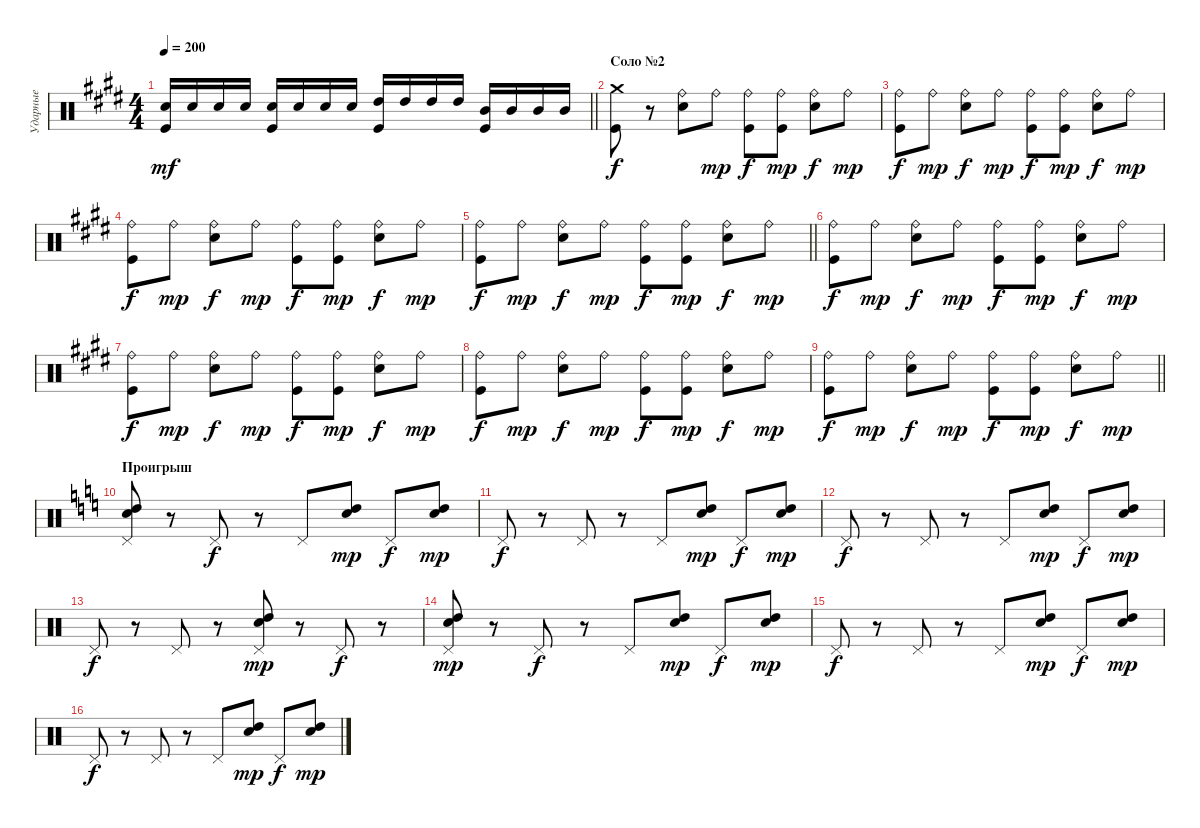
\track ("Ударные" "Ударные") {instrument percussion}
\staff {score}
\articulation defaults
\ts (4 4)
\tempo 200
\clef neutral
\barLineRight lightlight
\ks c#minor
("Electric Snare (hit)" "Kick (hit)").16{dy mf} "Electric Snare (hit)".16 "Electric Snare (hit)".16 "Electric Snare (hit)".16 ("Electric Snare (hit)" "Kick (hit)").16 "Electric Snare (hit)".16 "Electric Snare (hit)".16 "Electric Snare (hit)".16 ("High Tom (hit)" "Kick (hit)").16 "High Tom (hit)".16 "High Tom (hit)".16 "High Tom (hit)".16 ("Mid Tom (hit)" "Kick (hit)").16 "Mid Tom (hit)".16 "Mid Tom (hit)".16 "Mid Tom (hit)".16 |
\section ("" "Соло №2")
("Crash medium (hit)" "Kick (hit)").8{dy f} r.8 ("Ride (bell)" "Electric Snare (hit)").8 "Ride (bell)".8{dy mp} ("Ride (bell)" "Kick (hit)").8{dy f} ("Ride (bell)" "Kick (hit)").8{dy mp} ("Ride (bell)" "Electric Snare (hit)").8{dy f} "Ride (bell)".8{dy mp} |
("Ride (bell)" "Kick (hit)").8{dy f} "Ride (bell)".8{dy mp} ("Ride (bell)" "Electric Snare (hit)").8{dy f} "Ride (bell)".8{dy mp} ("Ride (bell)" "Kick (hit)").8{dy f} ("Ride (bell)" "Kick (hit)").8{dy mp} ("Ride (bell)" "Electric Snare (hit)").8{dy f} "Ride (bell)".8{dy mp} |
("Ride (bell)" "Kick (hit)").8{dy f} "Ride (bell)".8{dy mp} ("Ride (bell)" "Electric Snare (hit)").8{dy f} "Ride (bell)".8{dy mp} ("Ride (bell)" "Kick (hit)").8{dy f} ("Ride (bell)" "Kick (hit)").8{dy mp} ("Ride (bell)" "Electric Snare (hit)").8{dy f} "Ride (bell)".8{dy mp} |
\barLineRight lightlight
("Ride (bell)" "Kick (hit)").8{dy f} "Ride (bell)".8{dy mp} ("Ride (bell)" "Electric Snare (hit)").8{dy f} "Ride (bell)".8{dy mp} ("Ride (bell)" "Kick (hit)").8{dy f} ("Ride (bell)" "Kick (hit)").8{dy mp} ("Ride (bell)" "Electric Snare (hit)").8{dy f} "Ride (bell)".8{dy mp} |
("Ride (bell)" "Kick (hit)").8{dy f} "Ride (bell)".8{dy mp} ("Ride (bell)" "Electric Snare (hit)").8{dy f} "Ride (bell)".8{dy mp} ("Ride (bell)" "Kick (hit)").8{dy f} ("Ride (bell)" "Kick (hit)").8{dy mp} ("Ride (bell)" "Electric Snare (hit)").8{dy f} "Ride (bell)".8{dy mp} |
("Ride (bell)" "Kick (hit)").8{dy f} "Ride (bell)".8{dy mp} ("Ride (bell)" "Electric Snare (hit)").8{dy f} "Ride (bell)".8{dy mp} ("Ride (bell)" "Kick (hit)").8{dy f} ("Ride (bell)" "Kick (hit)").8{dy mp} ("Ride (bell)" "Electric Snare (hit)").8{dy f} "Ride (bell)".8{dy mp} |
("Ride (bell)" "Kick (hit)").8{dy f} "Ride (bell)".8{dy mp} ("Ride (bell)" "Electric Snare (hit)").8{dy f} "Ride (bell)".8{dy mp} ("Ride (bell)" "Kick (hit)").8{dy f} ("Ride (bell)" "Kick (hit)").8{dy mp} ("Ride (bell)" "Electric Snare (hit)").8{dy f} "Ride (bell)".8{dy mp} |
\barLineRight lightlight
("Ride (bell)" "Kick (hit)").8{dy f} "Ride (bell)".8{dy mp} ("Ride (bell)" "Electric Snare (hit)").8{dy f} "Ride (bell)".8{dy mp} ("Ride (bell)" "Kick (hit)").8{dy f} ("Ride (bell)" "Kick (hit)").8{dy mp} ("Ride (bell)" "Electric Snare (hit)").8{dy f} "Ride (bell)".8{dy mp} |
\section ("" "Проигрыш")
\ks c
("High Tom (hit)" "Electric Snare (hit)" "Pedal Hi-Hat (hit)").8 r.8 "Pedal Hi-Hat (hit)".8{dy f} r.8 "Pedal Hi-Hat (hit)".8 ("High Tom (hit)" "Electric Snare (hit)").8{dy mp} "Pedal Hi-Hat (hit)".8{dy f} ("High Tom (hit)" "Electric Snare (hit)").8{dy mp} |
"Pedal Hi-Hat (hit)".8{dy f} r.8 "Pedal Hi-Hat (hit)".8 r.8 "Pedal Hi-Hat (hit)".8 ("High Tom (hit)" "Electric Snare (hit)").8{dy mp} "Pedal Hi-Hat (hit)".8{dy f} ("High Tom (hit)" "Electric Snare (hit)").8{dy mp} |
"Pedal Hi-Hat (hit)".8{dy f} r.8 "Pedal Hi-Hat (hit)".8 r.8 "Pedal Hi-Hat (hit)".8 ("High Tom (hit)" "Electric Snare (hit)").8{dy mp} "Pedal Hi-Hat (hit)".8{dy f} ("High Tom (hit)" "Electric Snare (hit)").8{dy mp} |
"Pedal Hi-Hat (hit)".8{dy f} r.8 "Pedal Hi-Hat (hit)".8 r.8 ("High Tom (hit)" "Electric Snare (hit)" "Pedal Hi-Hat (hit)").8{dy mp} r.8 "Pedal Hi-Hat (hit)".8{dy f} r.8 |
("High Tom (hit)" "Electric Snare (hit)" "Pedal Hi-Hat (hit)").8{dy mp} r.8 "Pedal Hi-Hat (hit)".8{dy f} r.8 "Pedal Hi-Hat (hit)".8 ("High Tom (hit)" "Electric Snare (hit)").8{dy mp} "Pedal Hi-Hat (hit)".8{dy f} ("High Tom (hit)" "Electric Snare (hit)").8{dy mp} |
"Pedal Hi-Hat (hit)".8{dy f} r.8 "Pedal Hi-Hat (hit)".8 r.8 "Pedal Hi-Hat (hit)".8 ("High Tom (hit)" "Electric Snare (hit)").8{dy mp} "Pedal Hi-Hat (hit)".8{dy f} ("High Tom (hit)" "Electric Snare (hit)").8{dy mp} |
"Pedal Hi-Hat (hit)".8{dy f} r.8 "Pedal Hi-Hat (hit)".8 r.8 "Pedal Hi-Hat (hit)".8 ("High Tom (hit)" "Electric Snare (hit)").8{dy mp} "Pedal Hi-Hat (hit)".8{dy f} ("High Tom (hit)" "Electric Snare (hit)").8{dy mp}
